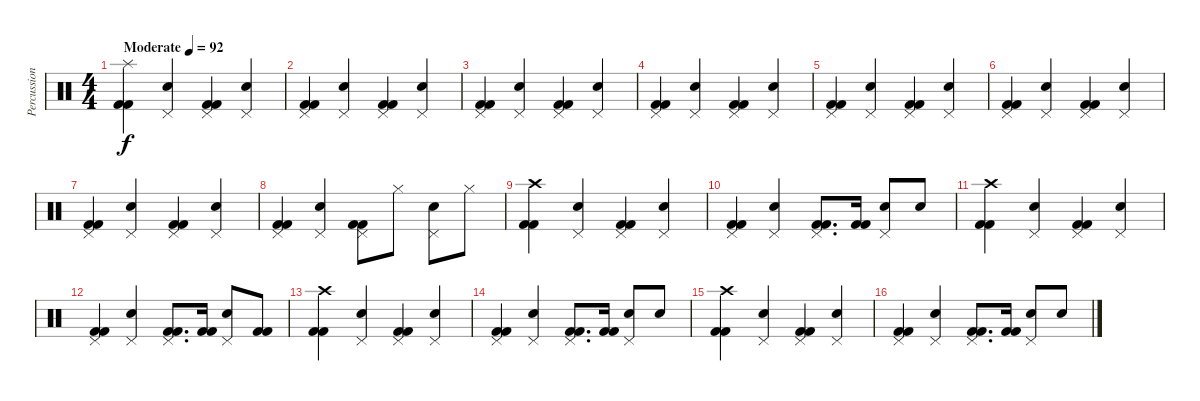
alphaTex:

\track ("Percussion" "Percussion") {instrument percussion}
\staff {score}
\articulation defaults
\ts (4 4)
\tempo (92 "Moderate")
\clef neutral
\ks c
("Splash (hit)" "Kick (hit) 2" "Kick (hit) 2").4{dy f} ("Pedal Hi-Hat (hit)" "Electric Snare (hit)").4 ("Pedal Hi-Hat (hit)" "Kick (hit) 2" "Kick (hit) 2").4 ("Pedal Hi-Hat (hit)" "Electric Snare (hit)").4 |
("Pedal Hi-Hat (hit)" "Kick (hit) 2" "Kick (hit) 2").4 ("Pedal Hi-Hat (hit)" "Electric Snare (hit)").4 ("Pedal Hi-Hat (hit)" "Kick (hit) 2" "Kick (hit) 2").4 ("Pedal Hi-Hat (hit)" "Electric Snare (hit)").4 |
("Pedal Hi-Hat (hit)" "Kick (hit) 2" "Kick (hit) 2").4 ("Pedal Hi-Hat (hit)" "Electric Snare (hit)").4 ("Pedal Hi-Hat (hit)" "Kick (hit) 2" "Kick (hit) 2").4 ("Pedal Hi-Hat (hit)" "Electric Snare (hit)").4 |
("Pedal Hi-Hat (hit)" "Kick (hit) 2" "Kick (hit) 2").4 ("Pedal Hi-Hat (hit)" "Electric Snare (hit)").4 ("Pedal Hi-Hat (hit)" "Kick (hit) 2" "Kick (hit) 2").4 ("Pedal Hi-Hat (hit)" "Electric Snare (hit)").4 |
("Pedal Hi-Hat (hit)" "Kick (hit) 2" "Kick (hit) 2").4 ("Pedal Hi-Hat (hit)" "Electric Snare (hit)").4 ("Pedal Hi-Hat (hit)" "Kick (hit) 2" "Kick (hit) 2").4 ("Pedal Hi-Hat (hit)" "Electric Snare (hit)").4 |
("Pedal Hi-Hat (hit)" "Kick (hit) 2" "Kick (hit) 2").4 ("Pedal Hi-Hat (hit)" "Electric Snare (hit)").4 ("Pedal Hi-Hat (hit)" "Kick (hit) 2" "Kick (hit) 2").4 ("Pedal Hi-Hat (hit)" "Electric Snare (hit)").4 |
("Pedal Hi-Hat (hit)" "Kick (hit) 2" "Kick (hit) 2").4 ("Pedal Hi-Hat (hit)" "Electric Snare (hit)").4 ("Pedal Hi-Hat (hit)" "Kick (hit) 2" "Kick (hit) 2").4 ("Pedal Hi-Hat (hit)" "Electric Snare (hit)").4 |
("Pedal Hi-Hat (hit)" "Kick (hit) 2" "Kick (hit) 2").4 ("Pedal Hi-Hat (hit)" "Electric Snare (hit)").4 ("Pedal Hi-Hat (hit)" "Kick (hit) 2" "Kick (hit) 2").8 "Hi-Hat (closed)".8 ("Pedal Hi-Hat (hit)" "Electric Snare (hit)").8 "Hi-Hat (closed)".8 |
("Crash high (hit)" "Kick (hit) 2" "Kick (hit) 2").4 ("Pedal Hi-Hat (hit)" "Electric Snare (hit)").4 ("Pedal Hi-Hat (hit)" "Kick (hit) 2" "Kick (hit) 2").4 ("Pedal Hi-Hat (hit)" "Electric Snare (hit)").4 |
("Pedal Hi-Hat (hit)" "Kick (hit) 2" "Kick (hit) 2").4 ("Pedal Hi-Hat (hit)" "Electric Snare (hit)").4 ("Pedal Hi-Hat (hit)" "Kick (hit) 2" "Kick (hit) 2").8{d} ("Kick (hit) 2" "Kick (hit) 2").16 ("Pedal Hi-Hat (hit)" "Electric Snare (hit)").8 "Electric Snare (hit)".8 |
("Crash high (hit)" "Kick (hit) 2" "Kick (hit) 2").4 ("Pedal Hi-Hat (hit)" "Electric Snare (hit)").4 ("Pedal Hi-Hat (hit)" "Kick (hit) 2" "Kick (hit) 2").4 ("Pedal Hi-Hat (hit)" "Electric Snare (hit)").4 |
("Pedal Hi-Hat (hit)" "Kick (hit) 2" "Kick (hit) 2").4 ("Pedal Hi-Hat (hit)" "Electric Snare (hit)").4 ("Pedal Hi-Hat (hit)" "Kick (hit) 2" "Kick (hit) 2").8{d} ("Kick (hit) 2" "Kick (hit) 2").16 ("Pedal Hi-Hat (hit)" "Electric Snare (hit)").8 ("Kick (hit) 2" "Kick (hit) 2").8 |
("Crash high (hit)" "Kick (hit) 2" "Kick (hit) 2").4 ("Pedal Hi-Hat (hit)" "Electric Snare (hit)").4 ("Pedal Hi-Hat (hit)" "Kick (hit) 2" "Kick (hit) 2").4 ("Pedal Hi-Hat (hit)" "Electric Snare (hit)").4 |
("Pedal Hi-Hat (hit)" "Kick (hit) 2" "Kick (hit) 2").4 ("Pedal Hi-Hat (hit)" "Electric Snare (hit)").4 ("Pedal Hi-Hat (hit)" "Kick (hit) 2" "Kick (hit) 2").8{d} ("Kick (hit) 2" "Kick (hit) 2").16 ("Pedal Hi-Hat (hit)" "Electric Snare (hit)").8 "Electric Snare (hit)".8 |
("Crash high (hit)" "Kick (hit) 2" "Kick (hit) 2").4 ("Pedal Hi-Hat (hit)" "Electric Snare (hit)").4 ("Pedal Hi-Hat (hit)" "Kick (hit) 2" "Kick (hit) 2").4 ("Pedal Hi-Hat (hit)" "Electric Snare (hit)").4 |
("Pedal Hi-Hat (hit)" "Kick (hit) 2" "Kick (hit) 2").4 ("Pedal Hi-Hat (hit)" "Electric Snare (hit)").4 ("Pedal Hi-Hat (hit)" "Kick (hit) 2" "Kick (hit) 2").8{d} ("Kick (hit) 2" "Kick (hit) 2").16 ("Pedal Hi-Hat (hit)" "Electric Snare (hit)").8 "Electric Snare (hit)".8
